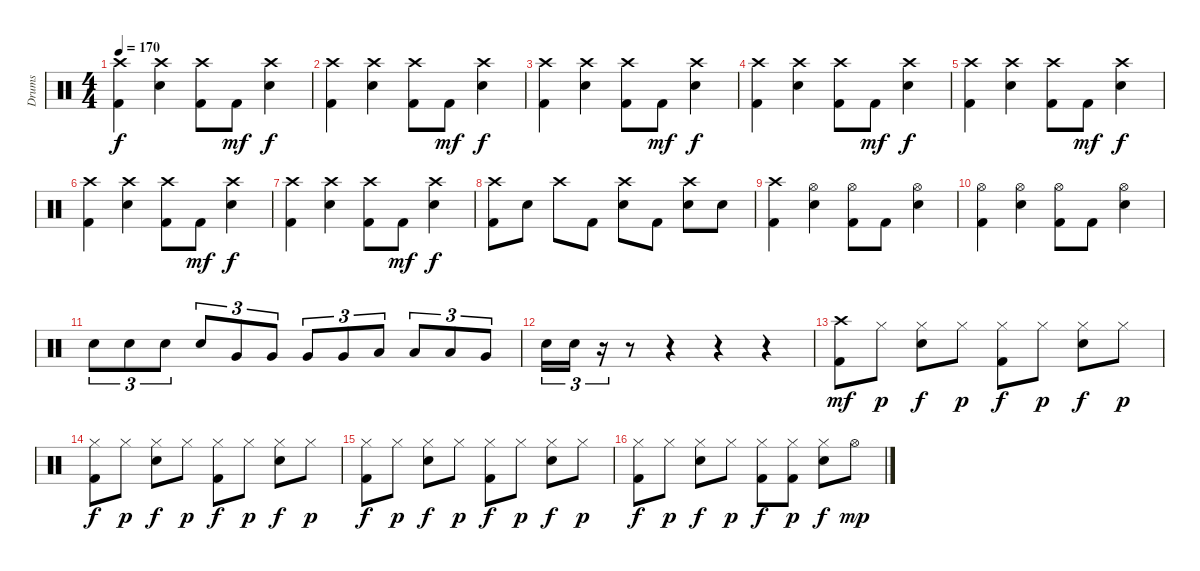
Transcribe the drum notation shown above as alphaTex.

\track ("Drums" "Drums") {instrument percussion}
\staff {score}
\articulation defaults
\ts (4 4)
\tempo 170
\clef neutral
\ks c
("Crash high (hit)" "Kick (hit) 2").4{dy f} ("Crash high (hit)" "Snare (hit) 2").4 ("Crash high (hit)" "Kick (hit) 2").8 "Kick (hit) 2".8{dy mf} ("Crash high (hit)" "Snare (hit) 2").4{dy f} |
("Crash high (hit)" "Kick (hit) 2").4 ("Crash high (hit)" "Snare (hit) 2").4 ("Crash high (hit)" "Kick (hit) 2").8 "Kick (hit) 2".8{dy mf} ("Crash high (hit)" "Snare (hit) 2").4{dy f} |
("Crash high (hit)" "Kick (hit) 2").4 ("Crash high (hit)" "Snare (hit) 2").4 ("Crash high (hit)" "Kick (hit) 2").8 "Kick (hit) 2".8{dy mf} ("Crash high (hit)" "Snare (hit) 2").4{dy f} |
("Crash high (hit)" "Kick (hit) 2").4 ("Crash high (hit)" "Snare (hit) 2").4 ("Crash high (hit)" "Kick (hit) 2").8 "Kick (hit) 2".8{dy mf} ("Crash high (hit)" "Snare (hit) 2").4{dy f} |
("Crash high (hit)" "Kick (hit) 2").4 ("Crash high (hit)" "Snare (hit) 2").4 ("Crash high (hit)" "Kick (hit) 2").8 "Kick (hit) 2".8{dy mf} ("Crash high (hit)" "Snare (hit) 2").4{dy f} |
("Crash high (hit)" "Kick (hit) 2").4 ("Crash high (hit)" "Snare (hit) 2").4 ("Crash high (hit)" "Kick (hit) 2").8 "Kick (hit) 2".8{dy mf} ("Crash high (hit)" "Snare (hit) 2").4{dy f} |
("Crash high (hit)" "Kick (hit) 2").4 ("Crash high (hit)" "Snare (hit) 2").4 ("Crash high (hit)" "Kick (hit) 2").8 "Kick (hit) 2".8{dy mf} ("Crash high (hit)" "Snare (hit) 2").4{dy f} |
("Crash high (hit)" "Kick (hit) 2").8 "Snare (hit) 2".8 "Crash high (hit)".8 "Kick (hit) 2".8 ("Crash high (hit)" "Snare (hit) 2").8 "Kick (hit) 2".8 ("Crash high (hit)" "Snare (hit) 2").8 "Snare (hit) 2".8 |
("Crash high (hit)" "Kick (hit) 2").4 ("Hi-Hat (open)" "Snare (hit) 2").4 ("Hi-Hat (open)" "Kick (hit) 2").8 "Kick (hit) 2".8 ("Hi-Hat (open)" "Snare (hit) 2").4 |
("Hi-Hat (open)" "Kick (hit) 2").4 ("Hi-Hat (open)" "Snare (hit) 2").4 ("Hi-Hat (open)" "Kick (hit) 2").8 "Kick (hit) 2".8 ("Hi-Hat (open)" "Snare (hit) 2").4 |
"Snare (hit) 2".8{tu (3 2)} "Snare (hit) 2".8{tu (3 2)} "Snare (hit) 2".8{tu (3 2)} "Snare (hit) 2".8{tu (3 2)} "Very Low Tom (hit)".8{tu (3 2)} "Very Low Tom (hit)".8{tu (3 2)} "Very Low Tom (hit)".8{tu (3 2)} "Very Low Tom (hit)".8{tu (3 2)} "Low Tom (hit)".8{tu (3 2)} "Low Tom (hit)".8{tu (3 2)} "Low Tom (hit)".8{tu (3 2)} "Very Low Tom (hit)".8{tu (3 2)} |
"Snare (hit) 2".16{tu (3 2)} "Snare (hit) 2".16{tu (3 2)} r.16{tu (3 2)} r.8 r.4 r.4 r.4 |
("Crash high (hit)" "Kick (hit) 2").8{dy mf} "Hi-Hat (closed)".8{dy p} ("Hi-Hat (closed)" "Snare (hit) 2").8{dy f} "Hi-Hat (closed)".8{dy p} ("Hi-Hat (closed)" "Kick (hit) 2").8{dy f} "Hi-Hat (closed)".8{dy p} ("Hi-Hat (closed)" "Snare (hit) 2").8{dy f} "Hi-Hat (closed)".8{dy p} |
("Hi-Hat (closed)" "Kick (hit) 2").8{dy f} "Hi-Hat (closed)".8{dy p} ("Hi-Hat (closed)" "Snare (hit) 2").8{dy f} "Hi-Hat (closed)".8{dy p} ("Hi-Hat (closed)" "Kick (hit) 2").8{dy f} "Hi-Hat (closed)".8{dy p} ("Hi-Hat (closed)" "Snare (hit) 2").8{dy f} "Hi-Hat (closed)".8{dy p} |
("Hi-Hat (closed)" "Kick (hit) 2").8{dy f} "Hi-Hat (closed)".8{dy p} ("Hi-Hat (closed)" "Snare (hit) 2").8{dy f} "Hi-Hat (closed)".8{dy p} ("Hi-Hat (closed)" "Kick (hit) 2").8{dy f} "Hi-Hat (closed)".8{dy p} ("Hi-Hat (closed)" "Snare (hit) 2").8{dy f} "Hi-Hat (closed)".8{dy p} |
("Hi-Hat (closed)" "Kick (hit) 2").8{dy f} "Hi-Hat (closed)".8{dy p} ("Hi-Hat (closed)" "Snare (hit) 2").8{dy f} "Hi-Hat (closed)".8{dy p} ("Hi-Hat (closed)" "Kick (hit) 2").8{dy f} ("Hi-Hat (closed)" "Kick (hit) 2").8{dy p} ("Hi-Hat (closed)" "Snare (hit) 2").8{dy f} "Hi-Hat (open)".8{dy mp}
